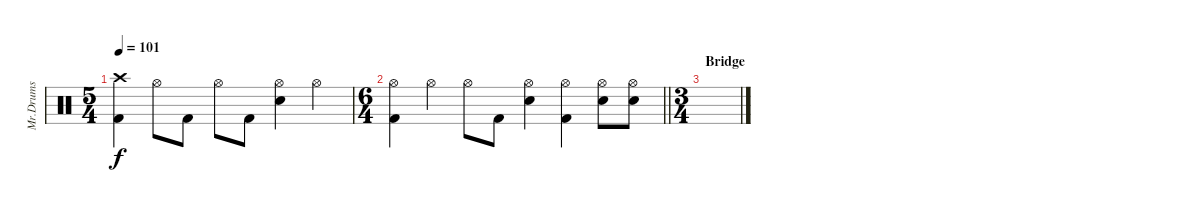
\track ("Mr.Drums" "Mr.Drums") {instrument percussion}
\staff {score}
\articulation defaults
\ts (5 4)
\tempo 101
\clef neutral
\ks c
("Crash high (hit)" "Kick (hit) 2").4{dy f} "Hi-Hat (open)".8 "Kick (hit) 2".8 "Hi-Hat (open)".8 "Kick (hit) 2".8 ("Hi-Hat (open)" "Electric Snare (hit)").4 "Hi-Hat (open)".4 |
\ts (6 4)
\barLineRight lightlight
("Hi-Hat (open)" "Kick (hit) 2").4 "Hi-Hat (open)".4 "Hi-Hat (open)".8 "Kick (hit) 2".8 ("Hi-Hat (open)" "Electric Snare (hit)").4 ("Hi-Hat (open)" "Kick (hit) 2").4 ("Hi-Hat (open)" "Electric Snare (hit)").8 ("Hi-Hat (open)" "Electric Snare (hit)").8 |
\ts (3 4)
\section ("" "Bridge")
